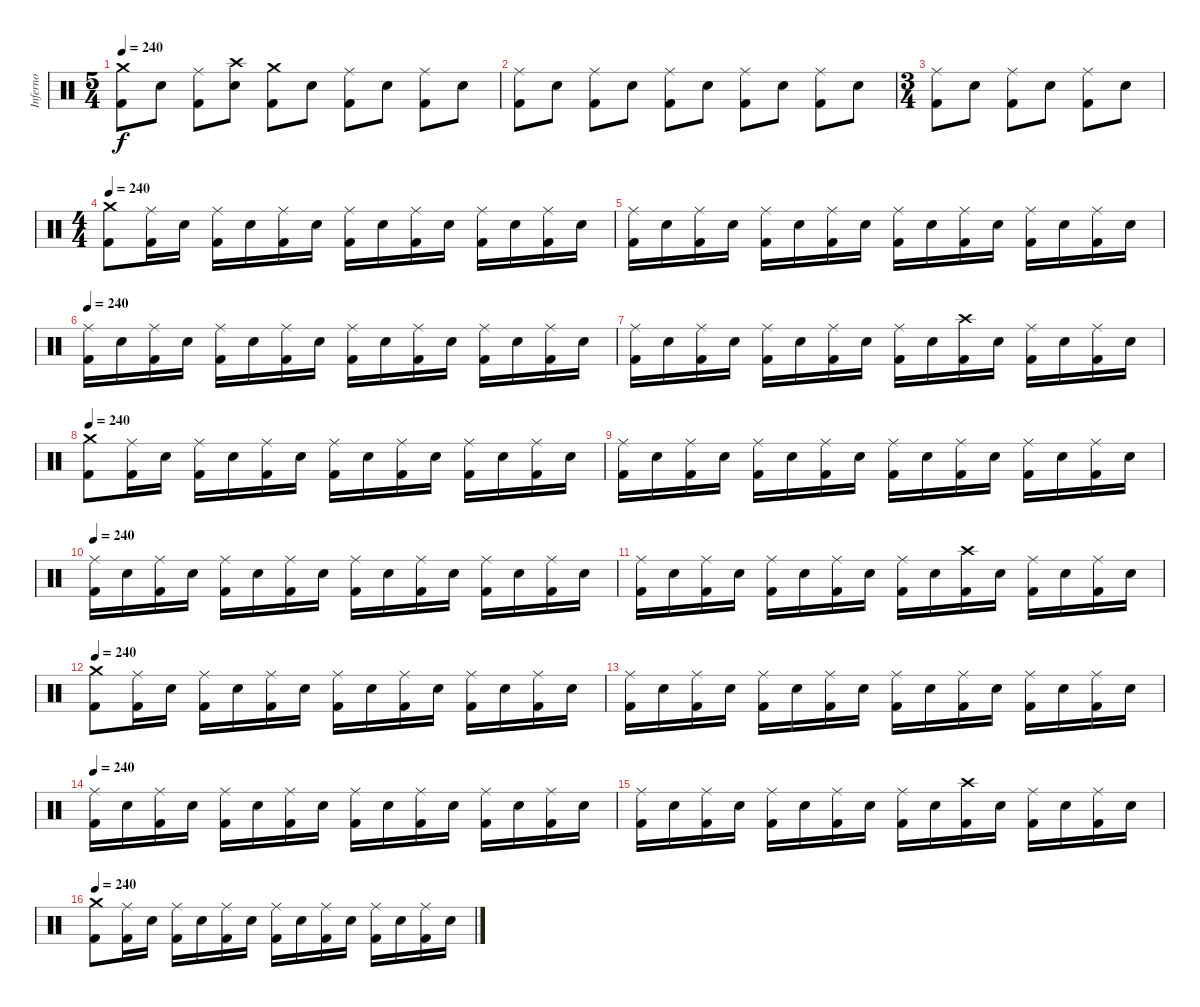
\track ("Inferno" "Inferno") {instrument percussion}
\staff {score}
\articulation defaults
\ts (5 4)
\tempo 240
\clef neutral
\ks c
("Crash medium (hit)" "Kick (hit) 2").8{dy f} "Snare (hit) 2".8 ("Ride (middle)" "Kick (hit) 2").8 ("Crash high (hit)" "Snare (hit) 2").8 ("Crash medium (hit)" "Kick (hit) 2").8 "Snare (hit) 2".8 ("Ride (middle)" "Kick (hit) 2").8 "Snare (hit) 2".8 ("Ride (middle)" "Kick (hit) 2").8 "Snare (hit) 2".8 |
("Ride (middle)" "Kick (hit) 2").8 "Snare (hit) 2".8 ("Ride (middle)" "Kick (hit) 2").8 "Snare (hit) 2".8 ("Ride (middle)" "Kick (hit) 2").8 "Snare (hit) 2".8 ("Ride (middle)" "Kick (hit) 2").8 "Snare (hit) 2".8 ("Ride (middle)" "Kick (hit) 2").8 "Snare (hit) 2".8 |
\ts (3 4)
("Ride (middle)" "Kick (hit) 2").8 "Snare (hit) 2".8 ("Ride (middle)" "Kick (hit) 2").8 "Snare (hit) 2".8 ("Ride (middle)" "Kick (hit) 2").8 "Snare (hit) 2".8 |
\ts (4 4)
\tempo 240
("Crash medium (hit)" "Kick (hit) 2").8 ("Ride (middle)" "Kick (hit) 2").16 "Snare (hit) 2".16 ("Ride (middle)" "Kick (hit) 2").16 "Snare (hit) 2".16 ("Ride (middle)" "Kick (hit) 2").16 "Snare (hit) 2".16 ("Ride (middle)" "Kick (hit) 2").16 "Snare (hit) 2".16 ("Ride (middle)" "Kick (hit) 2").16 "Snare (hit) 2".16 ("Ride (middle)" "Kick (hit) 2").16 "Snare (hit) 2".16 ("Ride (middle)" "Kick (hit) 2").16 "Snare (hit) 2".16 |
("Ride (middle)" "Kick (hit) 2").16 "Snare (hit) 2".16 ("Ride (middle)" "Kick (hit) 2").16 "Snare (hit) 2".16 ("Ride (middle)" "Kick (hit) 2").16 "Snare (hit) 2".16 ("Ride (middle)" "Kick (hit) 2").16 "Snare (hit) 2".16 ("Ride (middle)" "Kick (hit) 2").16 "Snare (hit) 2".16 ("Ride (middle)" "Kick (hit) 2").16 "Snare (hit) 2".16 ("Ride (middle)" "Kick (hit) 2").16 "Snare (hit) 2".16 ("Ride (middle)" "Kick (hit) 2").16 "Snare (hit) 2".16 |
\tempo 240
("Ride (middle)" "Kick (hit) 2").16 "Snare (hit) 2".16 ("Ride (middle)" "Kick (hit) 2").16 "Snare (hit) 2".16 ("Ride (middle)" "Kick (hit) 2").16 "Snare (hit) 2".16 ("Ride (middle)" "Kick (hit) 2").16 "Snare (hit) 2".16 ("Ride (middle)" "Kick (hit) 2").16 "Snare (hit) 2".16 ("Ride (middle)" "Kick (hit) 2").16 "Snare (hit) 2".16 ("Ride (middle)" "Kick (hit) 2").16 "Snare (hit) 2".16 ("Ride (middle)" "Kick (hit) 2").16 "Snare (hit) 2".16 |
("Ride (middle)" "Kick (hit) 2").16 "Snare (hit) 2".16 ("Ride (middle)" "Kick (hit) 2").16 "Snare (hit) 2".16 ("Ride (middle)" "Kick (hit) 2").16 "Snare (hit) 2".16 ("Ride (middle)" "Kick (hit) 2").16 "Snare (hit) 2".16 ("Ride (middle)" "Kick (hit) 2").16 "Snare (hit) 2".16 ("Crash high (hit)" "Kick (hit) 2").16 "Snare (hit) 2".16 ("Ride (middle)" "Kick (hit) 2").16 "Snare (hit) 2".16 ("Ride (middle)" "Kick (hit) 2").16 "Snare (hit) 2".16 |
\tempo 240
("Crash medium (hit)" "Kick (hit) 2").8 ("Ride (middle)" "Kick (hit) 2").16 "Snare (hit) 2".16 ("Ride (middle)" "Kick (hit) 2").16 "Snare (hit) 2".16 ("Ride (middle)" "Kick (hit) 2").16 "Snare (hit) 2".16 ("Ride (middle)" "Kick (hit) 2").16 "Snare (hit) 2".16 ("Ride (middle)" "Kick (hit) 2").16 "Snare (hit) 2".16 ("Ride (middle)" "Kick (hit) 2").16 "Snare (hit) 2".16 ("Ride (middle)" "Kick (hit) 2").16 "Snare (hit) 2".16 |
("Ride (middle)" "Kick (hit) 2").16 "Snare (hit) 2".16 ("Ride (middle)" "Kick (hit) 2").16 "Snare (hit) 2".16 ("Ride (middle)" "Kick (hit) 2").16 "Snare (hit) 2".16 ("Ride (middle)" "Kick (hit) 2").16 "Snare (hit) 2".16 ("Ride (middle)" "Kick (hit) 2").16 "Snare (hit) 2".16 ("Ride (middle)" "Kick (hit) 2").16 "Snare (hit) 2".16 ("Ride (middle)" "Kick (hit) 2").16 "Snare (hit) 2".16 ("Ride (middle)" "Kick (hit) 2").16 "Snare (hit) 2".16 |
\tempo 240
("Ride (middle)" "Kick (hit) 2").16 "Snare (hit) 2".16 ("Ride (middle)" "Kick (hit) 2").16 "Snare (hit) 2".16 ("Ride (middle)" "Kick (hit) 2").16 "Snare (hit) 2".16 ("Ride (middle)" "Kick (hit) 2").16 "Snare (hit) 2".16 ("Ride (middle)" "Kick (hit) 2").16 "Snare (hit) 2".16 ("Ride (middle)" "Kick (hit) 2").16 "Snare (hit) 2".16 ("Ride (middle)" "Kick (hit) 2").16 "Snare (hit) 2".16 ("Ride (middle)" "Kick (hit) 2").16 "Snare (hit) 2".16 |
("Ride (middle)" "Kick (hit) 2").16 "Snare (hit) 2".16 ("Ride (middle)" "Kick (hit) 2").16 "Snare (hit) 2".16 ("Ride (middle)" "Kick (hit) 2").16 "Snare (hit) 2".16 ("Ride (middle)" "Kick (hit) 2").16 "Snare (hit) 2".16 ("Ride (middle)" "Kick (hit) 2").16 "Snare (hit) 2".16 ("Crash high (hit)" "Kick (hit) 2").16 "Snare (hit) 2".16 ("Ride (middle)" "Kick (hit) 2").16 "Snare (hit) 2".16 ("Ride (middle)" "Kick (hit) 2").16 "Snare (hit) 2".16 |
\tempo 240
("Crash medium (hit)" "Kick (hit) 2").8 ("Ride (middle)" "Kick (hit) 2").16 "Snare (hit) 2".16 ("Ride (middle)" "Kick (hit) 2").16 "Snare (hit) 2".16 ("Ride (middle)" "Kick (hit) 2").16 "Snare (hit) 2".16 ("Ride (middle)" "Kick (hit) 2").16 "Snare (hit) 2".16 ("Ride (middle)" "Kick (hit) 2").16 "Snare (hit) 2".16 ("Ride (middle)" "Kick (hit) 2").16 "Snare (hit) 2".16 ("Ride (middle)" "Kick (hit) 2").16 "Snare (hit) 2".16 |
("Ride (middle)" "Kick (hit) 2").16 "Snare (hit) 2".16 ("Ride (middle)" "Kick (hit) 2").16 "Snare (hit) 2".16 ("Ride (middle)" "Kick (hit) 2").16 "Snare (hit) 2".16 ("Ride (middle)" "Kick (hit) 2").16 "Snare (hit) 2".16 ("Ride (middle)" "Kick (hit) 2").16 "Snare (hit) 2".16 ("Ride (middle)" "Kick (hit) 2").16 "Snare (hit) 2".16 ("Ride (middle)" "Kick (hit) 2").16 "Snare (hit) 2".16 ("Ride (middle)" "Kick (hit) 2").16 "Snare (hit) 2".16 |
\tempo 240
("Ride (middle)" "Kick (hit) 2").16 "Snare (hit) 2".16 ("Ride (middle)" "Kick (hit) 2").16 "Snare (hit) 2".16 ("Ride (middle)" "Kick (hit) 2").16 "Snare (hit) 2".16 ("Ride (middle)" "Kick (hit) 2").16 "Snare (hit) 2".16 ("Ride (middle)" "Kick (hit) 2").16 "Snare (hit) 2".16 ("Ride (middle)" "Kick (hit) 2").16 "Snare (hit) 2".16 ("Ride (middle)" "Kick (hit) 2").16 "Snare (hit) 2".16 ("Ride (middle)" "Kick (hit) 2").16 "Snare (hit) 2".16 |
("Ride (middle)" "Kick (hit) 2").16 "Snare (hit) 2".16 ("Ride (middle)" "Kick (hit) 2").16 "Snare (hit) 2".16 ("Ride (middle)" "Kick (hit) 2").16 "Snare (hit) 2".16 ("Ride (middle)" "Kick (hit) 2").16 "Snare (hit) 2".16 ("Ride (middle)" "Kick (hit) 2").16 "Snare (hit) 2".16 ("Crash high (hit)" "Kick (hit) 2").16 "Snare (hit) 2".16 ("Ride (middle)" "Kick (hit) 2").16 "Snare (hit) 2".16 ("Ride (middle)" "Kick (hit) 2").16 "Snare (hit) 2".16 |
\tempo 240
("Crash medium (hit)" "Kick (hit) 2").8 ("Ride (middle)" "Kick (hit) 2").16 "Snare (hit) 2".16 ("Ride (middle)" "Kick (hit) 2").16 "Snare (hit) 2".16 ("Ride (middle)" "Kick (hit) 2").16 "Snare (hit) 2".16 ("Ride (middle)" "Kick (hit) 2").16 "Snare (hit) 2".16 ("Ride (middle)" "Kick (hit) 2").16 "Snare (hit) 2".16 ("Ride (middle)" "Kick (hit) 2").16 "Snare (hit) 2".16 ("Ride (middle)" "Kick (hit) 2").16 "Snare (hit) 2".16
